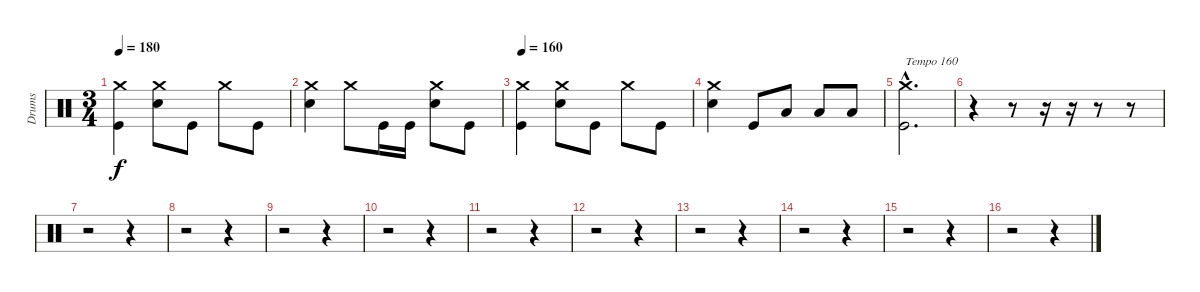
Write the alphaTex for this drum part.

\track ("Drums" "Drums") {instrument percussion}
\staff {score}
\articulation defaults
\ts (3 4)
\tempo 180
\clef neutral
\ks c
("Crash medium (hit)" "Kick (hit)").4{dy f} ("Crash medium (hit)" "Electric Snare (hit)").8 "Kick (hit)".8 "Crash medium (hit)".8 "Kick (hit)".8 |
("Crash medium (hit)" "Electric Snare (hit)").4 "Crash medium (hit)".8 "Kick (hit)".16 "Kick (hit)".16 ("Crash medium (hit)" "Electric Snare (hit)").8 "Kick (hit)".8 |
\tempo 160
("Crash medium (hit)" "Kick (hit)").4 ("Crash medium (hit)" "Electric Snare (hit)").8 "Kick (hit)".8 "Crash medium (hit)".8 "Kick (hit)".8 |
("Crash medium (hit)" "Electric Snare (hit)").4 "Kick (hit)".8 "Low Tom (hit)".8 "Low Floor Tom (hit)".8 "Low Floor Tom (hit)".8 |
("Crash medium (hit)"{hac} "Kick (hit)"{hac}).2{d txt "Tempo 160"} |
r.4 r.8 r.16 r.16 r.8 r.8 |
r.2 r.4 |
r.2 r.4 |
r.2 r.4 |
r.2 r.4 |
r.2 r.4 |
r.2 r.4 |
r.2 r.4 |
r.2 r.4 |
r.2 r.4 |
r.2 r.4
